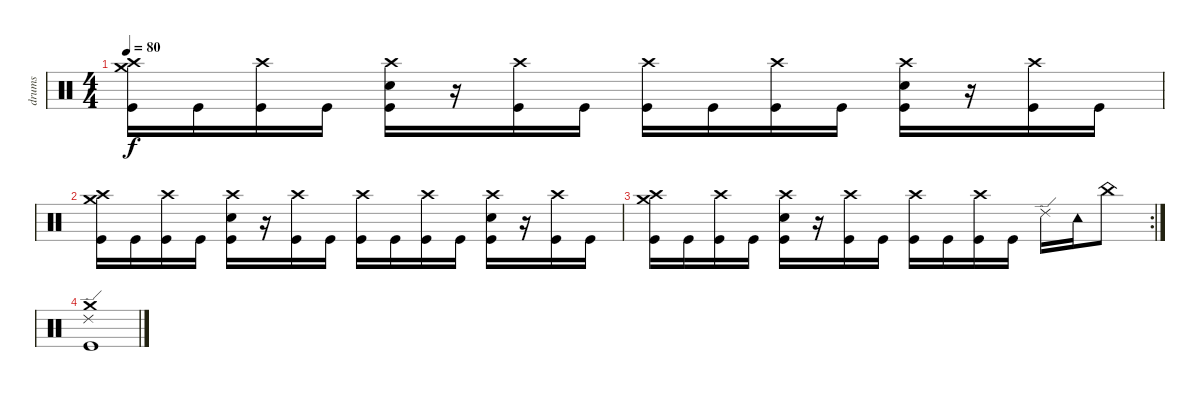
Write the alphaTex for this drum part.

\track ("drums" "drums") {instrument percussion}
\staff {score}
\articulation defaults
\ts (4 4)
\tempo 80
\clef neutral
\ks c
("Crash medium (hit)" "Crash high (hit)" "Kick (hit)").16{dy f} "Kick (hit)".16 ("Crash high (hit)" "Kick (hit)").16 "Kick (hit)".16 ("Crash high (hit)" "Snare (hit) 2" "Kick (hit)").16 r.16 ("Crash high (hit)" "Kick (hit)").16 "Kick (hit)".16 ("Crash high (hit)" "Kick (hit)").16 "Kick (hit)".16 ("Crash high (hit)" "Kick (hit)").16 "Kick (hit)".16 ("Crash high (hit)" "Snare (hit) 2" "Kick (hit)").16 r.16 ("Crash high (hit)" "Kick (hit)").16 "Kick (hit)".16 |
("Crash medium (hit)" "Crash high (hit)" "Kick (hit)").16 "Kick (hit)".16 ("Crash high (hit)" "Kick (hit)").16 "Kick (hit)".16 ("Crash high (hit)" "Snare (hit) 2" "Kick (hit)").16 r.16 ("Crash high (hit)" "Kick (hit)").16 "Kick (hit)".16 ("Crash high (hit)" "Kick (hit)").16 "Kick (hit)".16 ("Crash high (hit)" "Kick (hit)").16 "Kick (hit)".16 ("Crash high (hit)" "Snare (hit) 2" "Kick (hit)").16 r.16 ("Crash high (hit)" "Kick (hit)").16 "Kick (hit)".16 |
\rc 2
("Crash medium (hit)" "Crash high (hit)" "Kick (hit)").16 "Kick (hit)".16 ("Crash high (hit)" "Kick (hit)").16 "Kick (hit)".16 ("Crash high (hit)" "Snare (hit) 2" "Kick (hit)").16 r.16 ("Crash high (hit)" "Kick (hit)").16 "Kick (hit)".16 ("Crash high (hit)" "Kick (hit)").16 "Kick (hit)".16 ("Crash high (hit)" "Kick (hit)").16 "Kick (hit)".16 "Ride (edge) 2".16 "Tambourine (hit)".16 "China (hit)".8 |
("Crash medium (hit)" "Ride (edge) 2" "Kick (hit)").1
